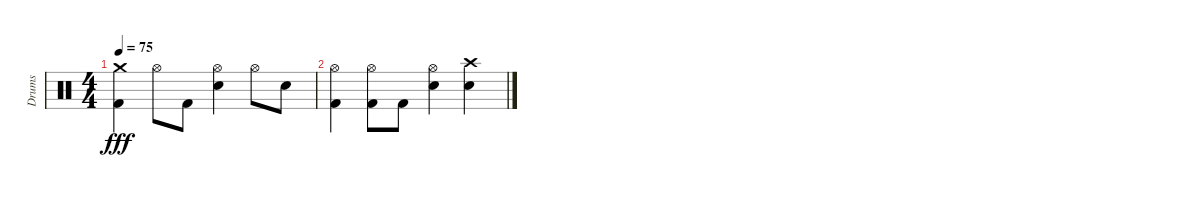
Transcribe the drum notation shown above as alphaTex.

\track ("Drums" "Drums") {instrument percussion}
\staff {score}
\articulation defaults
\ts (4 4)
\tempo 75
\clef neutral
\ks c
("Crash medium (hit)" "Kick (hit) 2").4{dy fff} "Hi-Hat (open)".8 "Kick (hit) 2".8 ("Hi-Hat (open)" "Snare (hit) 2").4 "Hi-Hat (open)".8 "Snare (hit) 2".8 |
("Hi-Hat (open)" "Kick (hit) 2").4 ("Hi-Hat (open)" "Kick (hit) 2").8 "Kick (hit) 2".8 ("Hi-Hat (open)" "Snare (hit) 2").4 ("Crash high (hit)" "Snare (hit) 2").4
